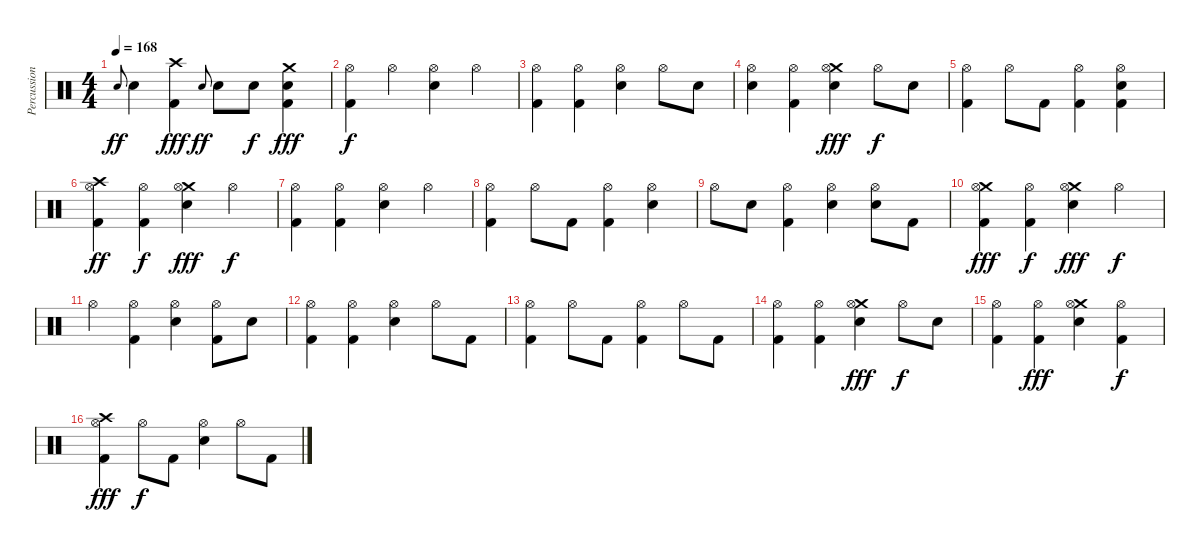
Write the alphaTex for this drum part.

\track ("Percussion" "Percussion") {instrument percussion}
\staff {score}
\articulation defaults
\ts (4 4)
\tempo 168
\clef neutral
\ks c "Snare (hit) 2".8{gr onbeat dy ff} "Snare (hit) 2".4
("Crash high (hit)" "Kick (hit) 2").4{dy fff} "Snare (hit) 2".8{gr onbeat dy ff} "Snare (hit) 2".8 "Snare (hit) 2".8{dy f} ("Crash medium (hit)" "Snare (hit) 2" "Kick (hit) 2").4{dy fff} |
("Hi-Hat (open)" "Kick (hit) 2").4{dy f} "Hi-Hat (open)".4 ("Hi-Hat (open)" "Snare (hit) 2").4 "Hi-Hat (open)".4 |
("Hi-Hat (open)" "Kick (hit) 2").4 ("Hi-Hat (open)" "Kick (hit) 2").4 ("Hi-Hat (open)" "Snare (hit) 2").4 "Hi-Hat (open)".8 "Snare (hit) 2".8 |
("Hi-Hat (open)" "Snare (hit) 2").4 ("Hi-Hat (open)" "Kick (hit) 2").4 ("Crash medium (hit)" "Hi-Hat (open)" "Snare (hit) 2").4{dy fff} "Hi-Hat (open)".8{dy f} "Snare (hit) 2".8 |
("Hi-Hat (open)" "Kick (hit) 2").4 "Hi-Hat (open)".8 "Kick (hit) 2".8 ("Hi-Hat (open)" "Kick (hit) 2").4 ("Hi-Hat (open)" "Snare (hit) 2" "Kick (hit) 2").4 |
("Crash high (hit)" "Hi-Hat (open)" "Kick (hit) 2").4{dy ff} ("Hi-Hat (open)" "Kick (hit) 2").4{dy f} ("Crash medium (hit)" "Hi-Hat (open)" "Snare (hit) 2").4{dy fff} "Hi-Hat (open)".4{dy f} |
("Hi-Hat (open)" "Kick (hit) 2").4 ("Hi-Hat (open)" "Kick (hit) 2").4 ("Hi-Hat (open)" "Snare (hit) 2").4 "Hi-Hat (open)".4 |
("Hi-Hat (open)" "Kick (hit) 2").4 "Hi-Hat (open)".8 "Kick (hit) 2".8 ("Hi-Hat (open)" "Kick (hit) 2").4 ("Hi-Hat (open)" "Snare (hit) 2").4 |
"Hi-Hat (open)".8 "Snare (hit) 2".8 ("Hi-Hat (open)" "Kick (hit) 2").4 ("Hi-Hat (open)" "Snare (hit) 2").4 ("Hi-Hat (open)" "Snare (hit) 2").8 "Kick (hit) 2".8 |
("Crash medium (hit)" "Hi-Hat (open)" "Kick (hit) 2").4{dy fff} ("Hi-Hat (open)" "Kick (hit) 2").4{dy f} ("Crash medium (hit)" "Hi-Hat (open)" "Snare (hit) 2").4{dy fff} "Hi-Hat (open)".4{dy f} |
"Hi-Hat (open)".4 ("Hi-Hat (open)" "Kick (hit) 2").4 ("Hi-Hat (open)" "Snare (hit) 2").4 ("Hi-Hat (open)" "Kick (hit) 2").8 "Snare (hit) 2".8 |
("Hi-Hat (open)" "Kick (hit) 2").4 ("Hi-Hat (open)" "Kick (hit) 2").4 ("Hi-Hat (open)" "Snare (hit) 2").4 "Hi-Hat (open)".8 "Kick (hit) 2".8 |
("Hi-Hat (open)" "Kick (hit) 2").4 "Hi-Hat (open)".8 "Kick (hit) 2".8 ("Hi-Hat (open)" "Kick (hit) 2").4 "Hi-Hat (open)".8 "Kick (hit) 2".8 |
("Hi-Hat (open)" "Kick (hit) 2").4 ("Hi-Hat (open)" "Kick (hit) 2").4 ("Crash medium (hit)" "Hi-Hat (open)" "Snare (hit) 2").4{dy fff} "Hi-Hat (open)".8{dy f} "Snare (hit) 2".8 |
("Hi-Hat (open)" "Kick (hit) 2").4 ("Hi-Hat (open)" "Kick (hit) 2").4{dy fff} ("Crash medium (hit)" "Hi-Hat (open)" "Snare (hit) 2").4 ("Hi-Hat (open)" "Kick (hit) 2").4{dy f} |
("Crash high (hit)" "Hi-Hat (open)" "Kick (hit) 2").4{dy fff} "Hi-Hat (open)".8{dy f} "Kick (hit) 2".8 ("Hi-Hat (open)" "Snare (hit) 2").4 "Hi-Hat (open)".8 "Kick (hit) 2".8
